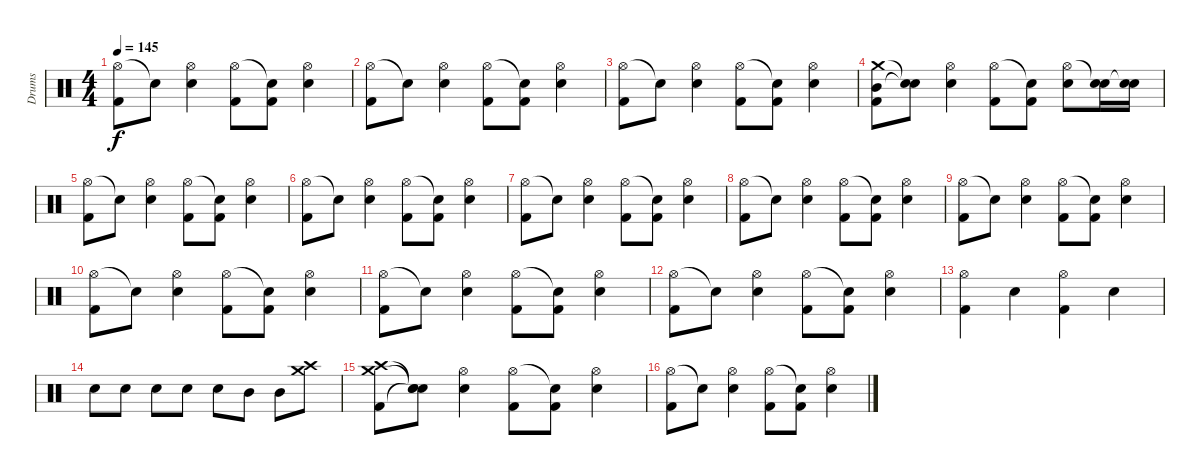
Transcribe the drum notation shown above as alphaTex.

\track ("Drums" "Drums") {instrument percussion}
\staff {score}
\articulation defaults
\ts (4 4)
\tempo 145
\clef neutral
\ks c
("Hi-Hat (open)" "Kick (hit) 2").8{dy f} "Snare (hit)"{t}.8 ("Hi-Hat (open)" "Electric Snare (hit)").4 ("Hi-Hat (open)" "Kick (hit) 2").8 ("Snare (hit)"{t} "Kick (hit) 2").8 ("Hi-Hat (open)" "Electric Snare (hit)").4 |
("Hi-Hat (open)" "Kick (hit) 2").8 "Snare (hit)"{t}.8 ("Hi-Hat (open)" "Electric Snare (hit)").4 ("Hi-Hat (open)" "Kick (hit) 2").8 ("Snare (hit)"{t} "Kick (hit) 2").8 ("Hi-Hat (open)" "Electric Snare (hit)").4 |
("Hi-Hat (open)" "Kick (hit) 2").8 "Snare (hit)"{t}.8 ("Hi-Hat (open)" "Electric Snare (hit)").4 ("Hi-Hat (open)" "Kick (hit) 2").8 ("Snare (hit)"{t} "Kick (hit) 2").8 ("Hi-Hat (open)" "Electric Snare (hit)").4 |
("Mid Tom (hit)" "Crash medium (hit)" "Kick (hit) 2").8 ("Snare (hit)"{t} "Snare (hit)"{t}).8 ("Hi-Hat (open)" "Electric Snare (hit)").4 ("Hi-Hat (open)" "Kick (hit) 2").8 ("Snare (hit)"{t} "Kick (hit) 2").8 ("Hi-Hat (open)" "Electric Snare (hit)").8 ("Snare (hit)"{t} "Electric Snare (hit)").16 ("Snare (hit)"{t} "Electric Snare (hit)").16 |
("Hi-Hat (open)" "Kick (hit) 2").8 "Snare (hit)"{t}.8 ("Hi-Hat (open)" "Electric Snare (hit)").4 ("Hi-Hat (open)" "Kick (hit) 2").8 ("Snare (hit)"{t} "Kick (hit) 2").8 ("Hi-Hat (open)" "Electric Snare (hit)").4 |
("Hi-Hat (open)" "Kick (hit) 2").8 "Snare (hit)"{t}.8 ("Hi-Hat (open)" "Electric Snare (hit)").4 ("Hi-Hat (open)" "Kick (hit) 2").8 ("Snare (hit)"{t} "Kick (hit) 2").8 ("Hi-Hat (open)" "Electric Snare (hit)").4 |
("Hi-Hat (open)" "Kick (hit) 2").8 "Snare (hit)"{t}.8 ("Hi-Hat (open)" "Electric Snare (hit)").4 ("Hi-Hat (open)" "Kick (hit) 2").8 ("Snare (hit)"{t} "Kick (hit) 2").8 ("Hi-Hat (open)" "Electric Snare (hit)").4 |
("Hi-Hat (open)" "Kick (hit) 2").8 "Snare (hit)"{t}.8 ("Hi-Hat (open)" "Electric Snare (hit)").4 ("Hi-Hat (open)" "Kick (hit) 2").8 ("Snare (hit)"{t} "Kick (hit) 2").8 ("Hi-Hat (open)" "Electric Snare (hit)").4 |
("Hi-Hat (open)" "Kick (hit) 2").8 "Snare (hit)"{t}.8 ("Hi-Hat (open)" "Electric Snare (hit)").4 ("Hi-Hat (open)" "Kick (hit) 2").8 ("Snare (hit)"{t} "Kick (hit) 2").8 ("Hi-Hat (open)" "Electric Snare (hit)").4 |
("Hi-Hat (open)" "Kick (hit) 2").8 "Snare (hit)"{t}.8 ("Hi-Hat (open)" "Electric Snare (hit)").4 ("Hi-Hat (open)" "Kick (hit) 2").8 ("Snare (hit)"{t} "Kick (hit) 2").8 ("Hi-Hat (open)" "Electric Snare (hit)").4 |
("Hi-Hat (open)" "Kick (hit) 2").8 "Snare (hit)"{t}.8 ("Hi-Hat (open)" "Electric Snare (hit)").4 ("Hi-Hat (open)" "Kick (hit) 2").8 ("Snare (hit)"{t} "Kick (hit) 2").8 ("Hi-Hat (open)" "Electric Snare (hit)").4 |
("Hi-Hat (open)" "Kick (hit) 2").8 "Snare (hit)"{t}.8 ("Hi-Hat (open)" "Electric Snare (hit)").4 ("Hi-Hat (open)" "Kick (hit) 2").8 ("Snare (hit)"{t} "Kick (hit) 2").8 ("Hi-Hat (open)" "Electric Snare (hit)").4 |
("Hi-Hat (open)" "Kick (hit) 2").4 "Electric Snare (hit)".4 ("Hi-Hat (open)" "Kick (hit) 2").4 "Electric Snare (hit)".4 |
"Electric Snare (hit)".8 "Electric Snare (hit)".8 "Electric Snare (hit)".8 "Electric Snare (hit)".8 "Electric Snare (hit)".8 "Mid Tom (hit)".8 "Mid Tom (hit)".8 ("Crash medium (hit)" "Crash high (hit)").8 |
("Crash medium (hit)" "Crash high (hit)" "Kick (hit) 2").8 ("Snare (hit)"{t} "Snare (hit)"{t} "Snare (hit)"{t}).8 ("Hi-Hat (open)" "Electric Snare (hit)").4 ("Hi-Hat (open)" "Kick (hit) 2").8 ("Snare (hit)"{t} "Kick (hit) 2").8 ("Hi-Hat (open)" "Electric Snare (hit)").4 |
("Hi-Hat (open)" "Kick (hit) 2").8 "Snare (hit)"{t}.8 ("Hi-Hat (open)" "Electric Snare (hit)").4 ("Hi-Hat (open)" "Kick (hit) 2").8 ("Snare (hit)"{t} "Kick (hit) 2").8 ("Hi-Hat (open)" "Electric Snare (hit)").4
